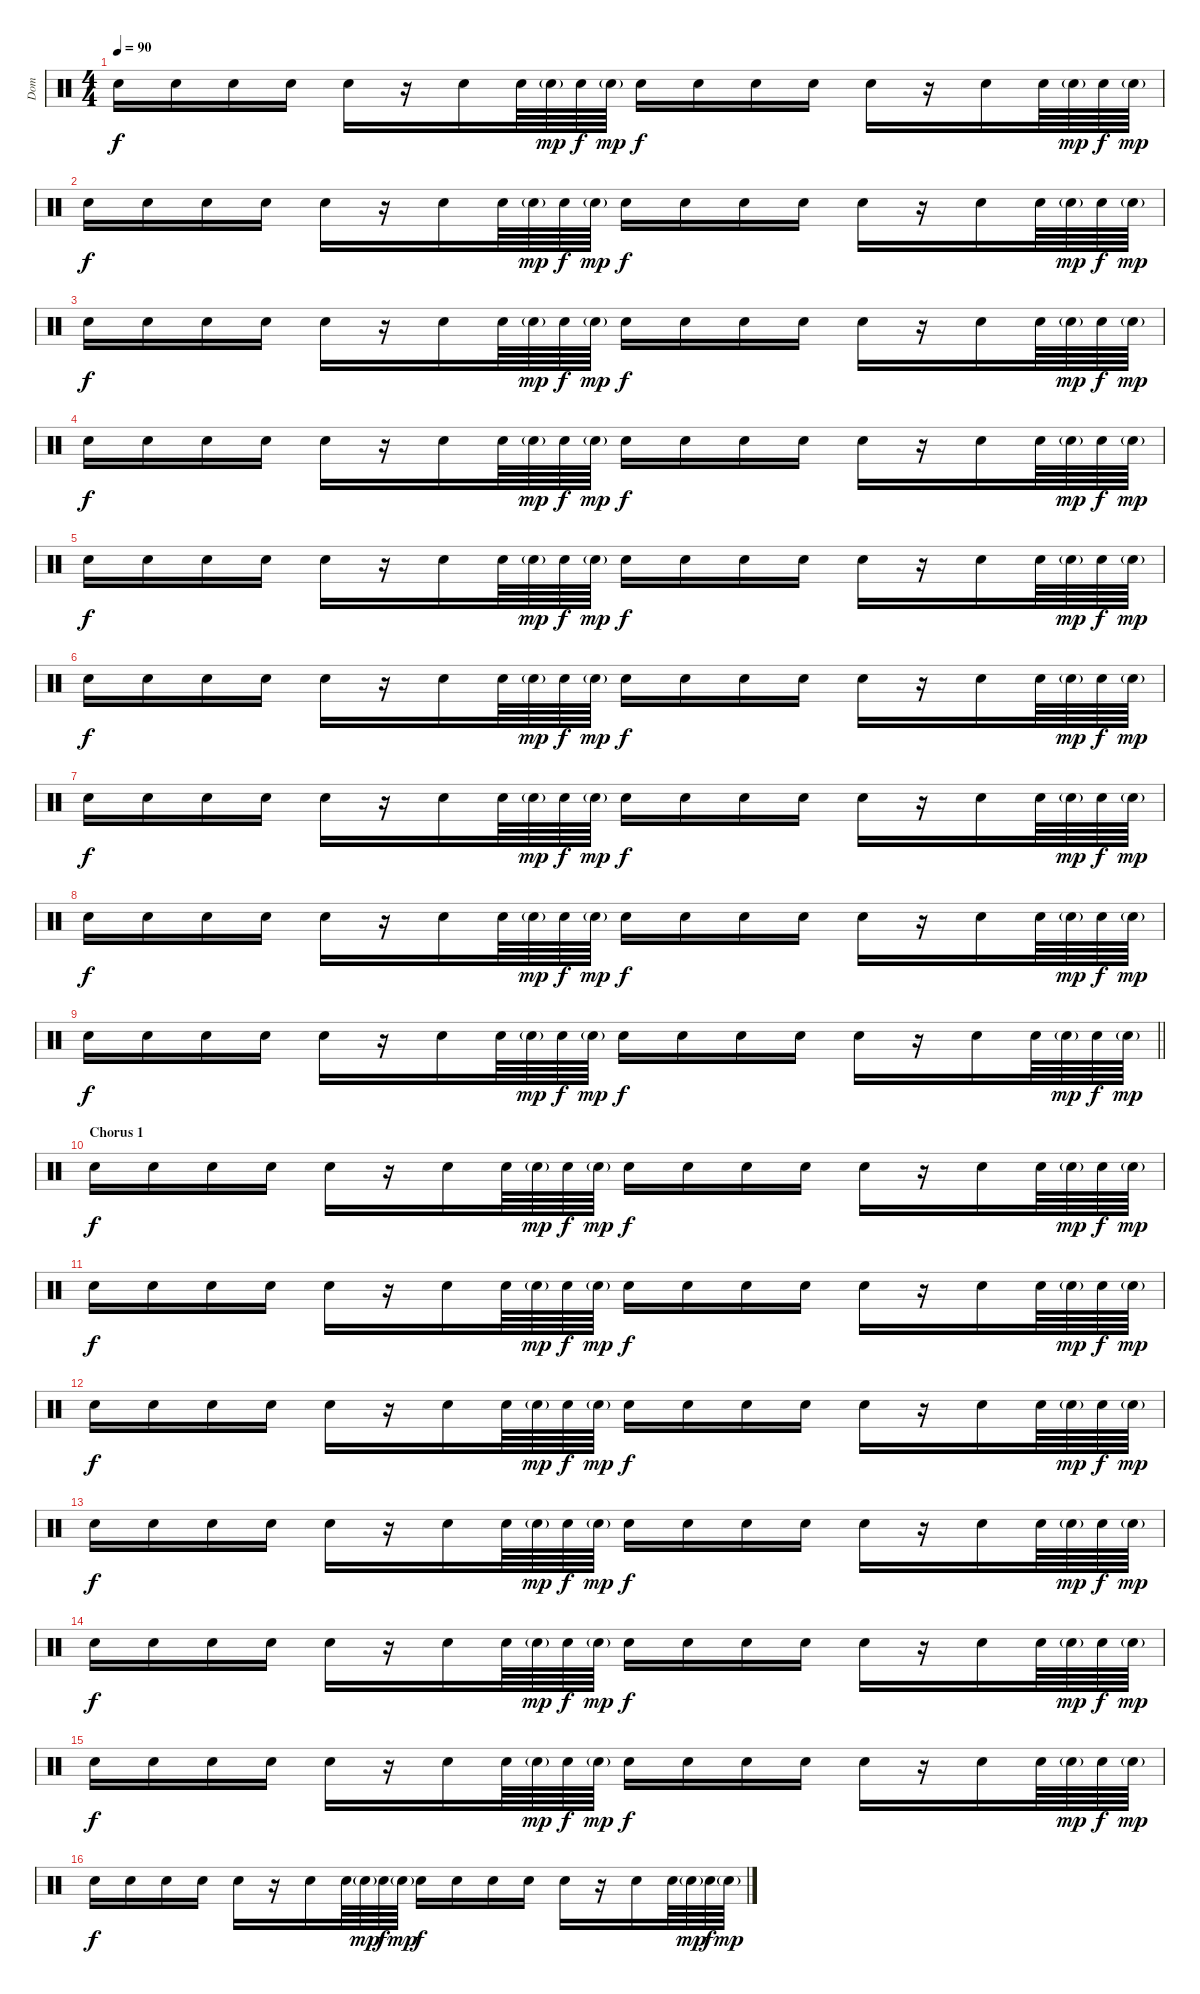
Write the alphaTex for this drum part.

\track ("Dom" "Dom") {instrument percussion}
\staff {score}
\articulation defaults
\ts (4 4)
\tempo 90
\clef neutral
\ks c "Snare (hit) 2".16{dy f} "Snare (hit) 2".16 "Snare (hit) 2".16 "Snare (hit) 2".16 "Snare (hit) 2".16
r.16 "Snare (hit) 2".16 "Snare (hit) 2".64 "Snare (hit) 2"{g}.64{dy mp} "Snare (hit) 2".64{dy f} "Snare (hit) 2"{g}.64{dy mp} "Snare (hit) 2".16{dy f} "Snare (hit) 2".16 "Snare (hit) 2".16 "Snare (hit) 2".16 "Snare (hit) 2".16 r.16 "Snare (hit) 2".16 "Snare (hit) 2".64 "Snare (hit) 2"{g}.64{dy mp} "Snare (hit) 2".64{dy f} "Snare (hit) 2"{g}.64{dy mp} |
"Snare (hit) 2".16{dy f} "Snare (hit) 2".16 "Snare (hit) 2".16 "Snare (hit) 2".16 "Snare (hit) 2".16 r.16 "Snare (hit) 2".16 "Snare (hit) 2".64 "Snare (hit) 2"{g}.64{dy mp} "Snare (hit) 2".64{dy f} "Snare (hit) 2"{g}.64{dy mp} "Snare (hit) 2".16{dy f} "Snare (hit) 2".16 "Snare (hit) 2".16 "Snare (hit) 2".16 "Snare (hit) 2".16 r.16 "Snare (hit) 2".16 "Snare (hit) 2".64 "Snare (hit) 2"{g}.64{dy mp} "Snare (hit) 2".64{dy f} "Snare (hit) 2"{g}.64{dy mp} |
"Snare (hit) 2".16{dy f} "Snare (hit) 2".16 "Snare (hit) 2".16 "Snare (hit) 2".16 "Snare (hit) 2".16 r.16 "Snare (hit) 2".16 "Snare (hit) 2".64 "Snare (hit) 2"{g}.64{dy mp} "Snare (hit) 2".64{dy f} "Snare (hit) 2"{g}.64{dy mp} "Snare (hit) 2".16{dy f} "Snare (hit) 2".16 "Snare (hit) 2".16 "Snare (hit) 2".16 "Snare (hit) 2".16 r.16 "Snare (hit) 2".16 "Snare (hit) 2".64 "Snare (hit) 2"{g}.64{dy mp} "Snare (hit) 2".64{dy f} "Snare (hit) 2"{g}.64{dy mp} |
"Snare (hit) 2".16{dy f} "Snare (hit) 2".16 "Snare (hit) 2".16 "Snare (hit) 2".16 "Snare (hit) 2".16 r.16 "Snare (hit) 2".16 "Snare (hit) 2".64 "Snare (hit) 2"{g}.64{dy mp} "Snare (hit) 2".64{dy f} "Snare (hit) 2"{g}.64{dy mp} "Snare (hit) 2".16{dy f} "Snare (hit) 2".16 "Snare (hit) 2".16 "Snare (hit) 2".16 "Snare (hit) 2".16 r.16 "Snare (hit) 2".16 "Snare (hit) 2".64 "Snare (hit) 2"{g}.64{dy mp} "Snare (hit) 2".64{dy f} "Snare (hit) 2"{g}.64{dy mp} |
"Snare (hit) 2".16{dy f} "Snare (hit) 2".16 "Snare (hit) 2".16 "Snare (hit) 2".16 "Snare (hit) 2".16 r.16 "Snare (hit) 2".16 "Snare (hit) 2".64 "Snare (hit) 2"{g}.64{dy mp} "Snare (hit) 2".64{dy f} "Snare (hit) 2"{g}.64{dy mp} "Snare (hit) 2".16{dy f} "Snare (hit) 2".16 "Snare (hit) 2".16 "Snare (hit) 2".16 "Snare (hit) 2".16 r.16 "Snare (hit) 2".16 "Snare (hit) 2".64 "Snare (hit) 2"{g}.64{dy mp} "Snare (hit) 2".64{dy f} "Snare (hit) 2"{g}.64{dy mp} |
"Snare (hit) 2".16{dy f} "Snare (hit) 2".16 "Snare (hit) 2".16 "Snare (hit) 2".16 "Snare (hit) 2".16 r.16 "Snare (hit) 2".16 "Snare (hit) 2".64 "Snare (hit) 2"{g}.64{dy mp} "Snare (hit) 2".64{dy f} "Snare (hit) 2"{g}.64{dy mp} "Snare (hit) 2".16{dy f} "Snare (hit) 2".16 "Snare (hit) 2".16 "Snare (hit) 2".16 "Snare (hit) 2".16 r.16 "Snare (hit) 2".16 "Snare (hit) 2".64 "Snare (hit) 2"{g}.64{dy mp} "Snare (hit) 2".64{dy f} "Snare (hit) 2"{g}.64{dy mp} |
"Snare (hit) 2".16{dy f} "Snare (hit) 2".16 "Snare (hit) 2".16 "Snare (hit) 2".16 "Snare (hit) 2".16 r.16 "Snare (hit) 2".16 "Snare (hit) 2".64 "Snare (hit) 2"{g}.64{dy mp} "Snare (hit) 2".64{dy f} "Snare (hit) 2"{g}.64{dy mp} "Snare (hit) 2".16{dy f} "Snare (hit) 2".16 "Snare (hit) 2".16 "Snare (hit) 2".16 "Snare (hit) 2".16 r.16 "Snare (hit) 2".16 "Snare (hit) 2".64 "Snare (hit) 2"{g}.64{dy mp} "Snare (hit) 2".64{dy f} "Snare (hit) 2"{g}.64{dy mp} |
"Snare (hit) 2".16{dy f} "Snare (hit) 2".16 "Snare (hit) 2".16 "Snare (hit) 2".16 "Snare (hit) 2".16 r.16 "Snare (hit) 2".16 "Snare (hit) 2".64 "Snare (hit) 2"{g}.64{dy mp} "Snare (hit) 2".64{dy f} "Snare (hit) 2"{g}.64{dy mp} "Snare (hit) 2".16{dy f} "Snare (hit) 2".16 "Snare (hit) 2".16 "Snare (hit) 2".16 "Snare (hit) 2".16 r.16 "Snare (hit) 2".16 "Snare (hit) 2".64 "Snare (hit) 2"{g}.64{dy mp} "Snare (hit) 2".64{dy f} "Snare (hit) 2"{g}.64{dy mp} |
\barLineRight lightlight "Snare (hit) 2".16{dy f} "Snare (hit) 2".16 "Snare (hit) 2".16 "Snare (hit) 2".16 "Snare (hit) 2".16
r.16 "Snare (hit) 2".16 "Snare (hit) 2".64 "Snare (hit) 2"{g}.64{dy mp} "Snare (hit) 2".64{dy f} "Snare (hit) 2"{g}.64{dy mp} "Snare (hit) 2".16{dy f} "Snare (hit) 2".16 "Snare (hit) 2".16 "Snare (hit) 2".16 "Snare (hit) 2".16 r.16 "Snare (hit) 2".16 "Snare (hit) 2".64 "Snare (hit) 2"{g}.64{dy mp} "Snare (hit) 2".64{dy f} "Snare (hit) 2"{g}.64{dy mp} |
\section ("" "Chorus 1")
"Snare (hit) 2".16{dy f} "Snare (hit) 2".16 "Snare (hit) 2".16 "Snare (hit) 2".16 "Snare (hit) 2".16 r.16 "Snare (hit) 2".16 "Snare (hit) 2".64 "Snare (hit) 2"{g}.64{dy mp} "Snare (hit) 2".64{dy f} "Snare (hit) 2"{g}.64{dy mp} "Snare (hit) 2".16{dy f} "Snare (hit) 2".16 "Snare (hit) 2".16 "Snare (hit) 2".16 "Snare (hit) 2".16 r.16 "Snare (hit) 2".16 "Snare (hit) 2".64 "Snare (hit) 2"{g}.64{dy mp} "Snare (hit) 2".64{dy f} "Snare (hit) 2"{g}.64{dy mp} |
"Snare (hit) 2".16{dy f} "Snare (hit) 2".16 "Snare (hit) 2".16 "Snare (hit) 2".16 "Snare (hit) 2".16 r.16 "Snare (hit) 2".16 "Snare (hit) 2".64 "Snare (hit) 2"{g}.64{dy mp} "Snare (hit) 2".64{dy f} "Snare (hit) 2"{g}.64{dy mp} "Snare (hit) 2".16{dy f} "Snare (hit) 2".16 "Snare (hit) 2".16 "Snare (hit) 2".16 "Snare (hit) 2".16 r.16 "Snare (hit) 2".16 "Snare (hit) 2".64 "Snare (hit) 2"{g}.64{dy mp} "Snare (hit) 2".64{dy f} "Snare (hit) 2"{g}.64{dy mp} |
"Snare (hit) 2".16{dy f} "Snare (hit) 2".16 "Snare (hit) 2".16 "Snare (hit) 2".16 "Snare (hit) 2".16 r.16 "Snare (hit) 2".16 "Snare (hit) 2".64 "Snare (hit) 2"{g}.64{dy mp} "Snare (hit) 2".64{dy f} "Snare (hit) 2"{g}.64{dy mp} "Snare (hit) 2".16{dy f} "Snare (hit) 2".16 "Snare (hit) 2".16 "Snare (hit) 2".16 "Snare (hit) 2".16 r.16 "Snare (hit) 2".16 "Snare (hit) 2".64 "Snare (hit) 2"{g}.64{dy mp} "Snare (hit) 2".64{dy f} "Snare (hit) 2"{g}.64{dy mp} |
"Snare (hit) 2".16{dy f} "Snare (hit) 2".16 "Snare (hit) 2".16 "Snare (hit) 2".16 "Snare (hit) 2".16 r.16 "Snare (hit) 2".16 "Snare (hit) 2".64 "Snare (hit) 2"{g}.64{dy mp} "Snare (hit) 2".64{dy f} "Snare (hit) 2"{g}.64{dy mp} "Snare (hit) 2".16{dy f} "Snare (hit) 2".16 "Snare (hit) 2".16 "Snare (hit) 2".16 "Snare (hit) 2".16 r.16 "Snare (hit) 2".16 "Snare (hit) 2".64 "Snare (hit) 2"{g}.64{dy mp} "Snare (hit) 2".64{dy f} "Snare (hit) 2"{g}.64{dy mp} |
"Snare (hit) 2".16{dy f} "Snare (hit) 2".16 "Snare (hit) 2".16 "Snare (hit) 2".16 "Snare (hit) 2".16 r.16 "Snare (hit) 2".16 "Snare (hit) 2".64 "Snare (hit) 2"{g}.64{dy mp} "Snare (hit) 2".64{dy f} "Snare (hit) 2"{g}.64{dy mp} "Snare (hit) 2".16{dy f} "Snare (hit) 2".16 "Snare (hit) 2".16 "Snare (hit) 2".16 "Snare (hit) 2".16 r.16 "Snare (hit) 2".16 "Snare (hit) 2".64 "Snare (hit) 2"{g}.64{dy mp} "Snare (hit) 2".64{dy f} "Snare (hit) 2"{g}.64{dy mp} |
"Snare (hit) 2".16{dy f} "Snare (hit) 2".16 "Snare (hit) 2".16 "Snare (hit) 2".16 "Snare (hit) 2".16 r.16 "Snare (hit) 2".16 "Snare (hit) 2".64 "Snare (hit) 2"{g}.64{dy mp} "Snare (hit) 2".64{dy f} "Snare (hit) 2"{g}.64{dy mp} "Snare (hit) 2".16{dy f} "Snare (hit) 2".16 "Snare (hit) 2".16 "Snare (hit) 2".16 "Snare (hit) 2".16 r.16 "Snare (hit) 2".16 "Snare (hit) 2".64 "Snare (hit) 2"{g}.64{dy mp} "Snare (hit) 2".64{dy f} "Snare (hit) 2"{g}.64{dy mp} |
"Snare (hit) 2".16{dy f} "Snare (hit) 2".16 "Snare (hit) 2".16 "Snare (hit) 2".16 "Snare (hit) 2".16 r.16 "Snare (hit) 2".16 "Snare (hit) 2".64 "Snare (hit) 2"{g}.64{dy mp} "Snare (hit) 2".64{dy f} "Snare (hit) 2"{g}.64{dy mp} "Snare (hit) 2".16{dy f} "Snare (hit) 2".16 "Snare (hit) 2".16 "Snare (hit) 2".16 "Snare (hit) 2".16 r.16 "Snare (hit) 2".16 "Snare (hit) 2".64 "Snare (hit) 2"{g}.64{dy mp} "Snare (hit) 2".64{dy f} "Snare (hit) 2"{g}.64{dy mp}
